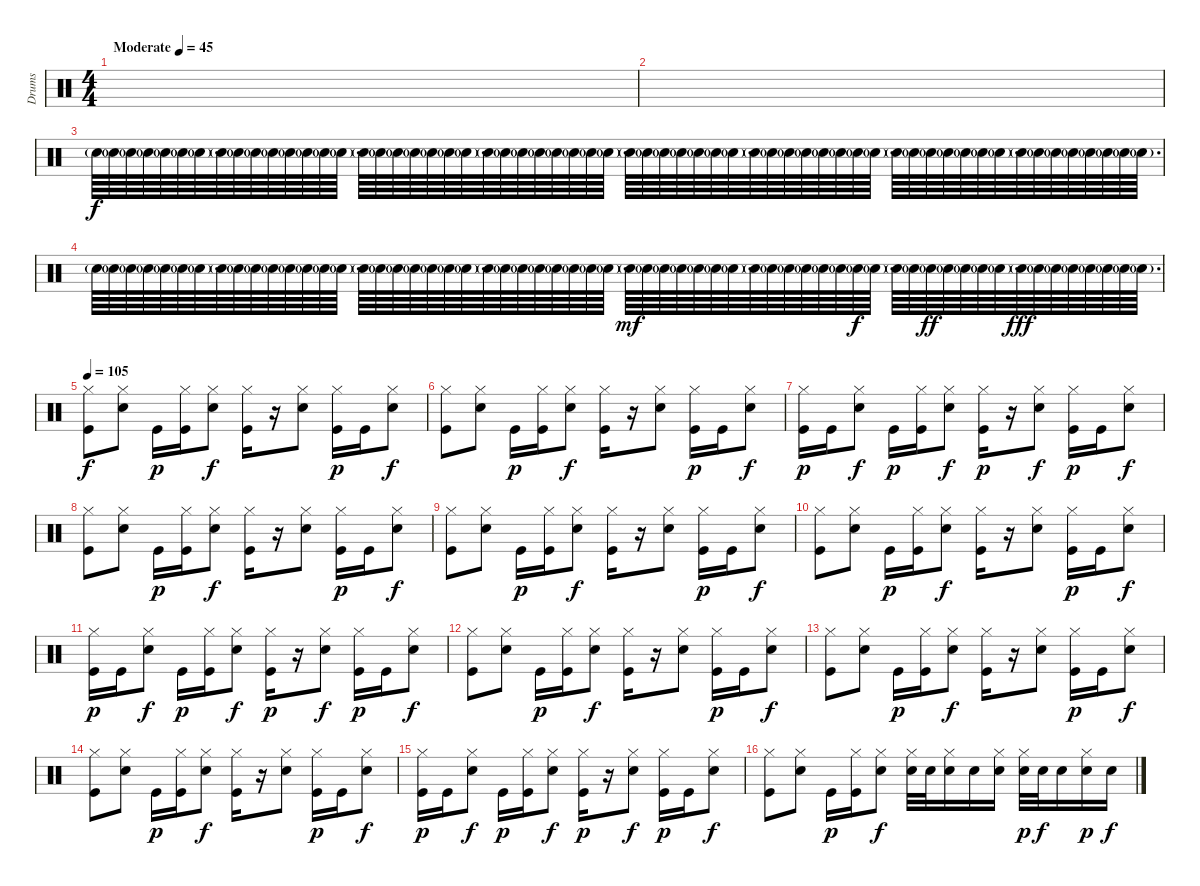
\track ("Drums" "Drums") {instrument percussion}
\staff {score}
\articulation defaults
\ts (4 4)
\tempo (45 "Moderate")
\clef neutral
\ks c
|
|
"Snare (hit) 2"{g}.64{volume 13} "Snare (hit) 2"{g}.64 "Snare (hit) 2"{g}.64 "Snare (hit) 2"{g}.64 "Snare (hit) 2"{g}.64 "Snare (hit) 2"{g}.64 "Snare (hit) 2"{g}.64{d} "Snare (hit) 2"{g}.64 "Snare (hit) 2"{g}.64 "Snare (hit) 2"{g}.64 "Snare (hit) 2"{g}.64 "Snare (hit) 2"{g}.64 "Snare (hit) 2"{g}.64 "Snare (hit) 2"{g}.64 "Snare (hit) 2"{g}.64{d} "Snare (hit) 2"{g}.64 "Snare (hit) 2"{g}.64 "Snare (hit) 2"{g}.64 "Snare (hit) 2"{g}.64 "Snare (hit) 2"{g}.64 "Snare (hit) 2"{g}.64 "Snare (hit) 2"{g}.64{d} "Snare (hit) 2"{g}.64 "Snare (hit) 2"{g}.64 "Snare (hit) 2"{g}.64 "Snare (hit) 2"{g}.64 "Snare (hit) 2"{g}.64 "Snare (hit) 2"{g}.64 "Snare (hit) 2"{g}.64 "Snare (hit) 2"{g}.64{d} "Snare (hit) 2"{g}.64 "Snare (hit) 2"{g}.64 "Snare (hit) 2"{g}.64 "Snare (hit) 2"{g}.64 "Snare (hit) 2"{g}.64 "Snare (hit) 2"{g}.64 "Snare (hit) 2"{g}.64{d} "Snare (hit) 2"{g}.64 "Snare (hit) 2"{g}.64 "Snare (hit) 2"{g}.64 "Snare (hit) 2"{g}.64 "Snare (hit) 2"{g}.64 "Snare (hit) 2"{g}.64 "Snare (hit) 2"{g}.64 "Snare (hit) 2"{g}.64{d} "Snare (hit) 2"{g}.64 "Snare (hit) 2"{g}.64 "Snare (hit) 2"{g}.64 "Snare (hit) 2"{g}.64 "Snare (hit) 2"{g}.64 "Snare (hit) 2"{g}.64 "Snare (hit) 2"{g}.64{d} "Snare (hit) 2"{g}.64 "Snare (hit) 2"{g}.64 "Snare (hit) 2"{g}.64 "Snare (hit) 2"{g}.64 "Snare (hit) 2"{g}.64 "Snare (hit) 2"{g}.64 "Snare (hit) 2"{g}.64 "Snare (hit) 2"{g}.64{d} |
"Snare (hit) 2"{g}.64{volume 16} "Snare (hit) 2"{g}.64 "Snare (hit) 2"{g}.64 "Snare (hit) 2"{g}.64 "Snare (hit) 2"{g}.64 "Snare (hit) 2"{g}.64 "Snare (hit) 2"{g}.64{d} "Snare (hit) 2"{g}.64 "Snare (hit) 2"{g}.64 "Snare (hit) 2"{g}.64 "Snare (hit) 2"{g}.64 "Snare (hit) 2"{g}.64 "Snare (hit) 2"{g}.64 "Snare (hit) 2"{g}.64 "Snare (hit) 2"{g}.64{d} "Snare (hit) 2"{g}.64 "Snare (hit) 2"{g}.64 "Snare (hit) 2"{g}.64 "Snare (hit) 2"{g}.64 "Snare (hit) 2"{g}.64 "Snare (hit) 2"{g}.64 "Snare (hit) 2"{g}.64{d} "Snare (hit) 2"{g}.64 "Snare (hit) 2"{g}.64 "Snare (hit) 2"{g}.64 "Snare (hit) 2"{g}.64 "Snare (hit) 2"{g}.64 "Snare (hit) 2"{g}.64 "Snare (hit) 2"{g}.64 "Snare (hit) 2"{g}.64{d} "Snare (hit) 2"{g}.64{dy mf} "Snare (hit) 2"{g}.64 "Snare (hit) 2"{g}.64 "Snare (hit) 2"{g}.64 "Snare (hit) 2"{g}.64 "Snare (hit) 2"{g}.64 "Snare (hit) 2"{g}.64{d} "Snare (hit) 2"{g}.64 "Snare (hit) 2"{g}.64 "Snare (hit) 2"{g}.64 "Snare (hit) 2"{g}.64 "Snare (hit) 2"{g}.64 "Snare (hit) 2"{g}.64 "Snare (hit) 2"{g}.64{dy f} "Snare (hit) 2"{g}.64{d} "Snare (hit) 2"{g}.64 "Snare (hit) 2"{g}.64 "Snare (hit) 2"{g}.64{dy ff} "Snare (hit) 2"{g}.64 "Snare (hit) 2"{g}.64 "Snare (hit) 2"{g}.64 "Snare (hit) 2"{g}.64{d} "Snare (hit) 2"{g}.64{dy fff} "Snare (hit) 2"{g}.64 "Snare (hit) 2"{g}.64 "Snare (hit) 2"{g}.64 "Snare (hit) 2"{g}.64 "Snare (hit) 2"{g}.64 "Snare (hit) 2"{g}.64 "Snare (hit) 2"{g}.64{d} |
\tempo 105
("Hi-Hat (closed)" "Kick (hit)").8{dy f} ("Hi-Hat (closed)" "Snare (hit) 2").8 "Kick (hit)".16{dy p} ("Hi-Hat (closed)" "Kick (hit)").16 ("Hi-Hat (closed)" "Snare (hit) 2").8{dy f} ("Hi-Hat (closed)" "Kick (hit)").16 r.16 ("Hi-Hat (closed)" "Snare (hit) 2").8 ("Hi-Hat (closed)" "Kick (hit)").16{dy p} "Kick (hit)".16 ("Hi-Hat (closed)" "Snare (hit) 2").8{dy f} |
("Hi-Hat (closed)" "Kick (hit)").8 ("Hi-Hat (closed)" "Snare (hit) 2").8 "Kick (hit)".16{dy p} ("Hi-Hat (closed)" "Kick (hit)").16 ("Hi-Hat (closed)" "Snare (hit) 2").8{dy f} ("Hi-Hat (closed)" "Kick (hit)").16 r.16 ("Hi-Hat (closed)" "Snare (hit) 2").8 ("Hi-Hat (closed)" "Kick (hit)").16{dy p} "Kick (hit)".16 ("Hi-Hat (closed)" "Snare (hit) 2").8{dy f} |
("Hi-Hat (closed)" "Kick (hit)").16{dy p} "Kick (hit)".16 ("Hi-Hat (closed)" "Snare (hit) 2").8{dy f} "Kick (hit)".16{dy p} ("Hi-Hat (closed)" "Kick (hit)").16 ("Hi-Hat (closed)" "Snare (hit) 2").8{dy f} ("Hi-Hat (closed)" "Kick (hit)").16{dy p} r.16 ("Hi-Hat (closed)" "Snare (hit) 2").8{dy f} ("Hi-Hat (closed)" "Kick (hit)").16{dy p} "Kick (hit)".16 ("Hi-Hat (closed)" "Snare (hit) 2").8{dy f} |
("Hi-Hat (closed)" "Kick (hit)").8 ("Hi-Hat (closed)" "Snare (hit) 2").8 "Kick (hit)".16{dy p} ("Hi-Hat (closed)" "Kick (hit)").16 ("Hi-Hat (closed)" "Snare (hit) 2").8{dy f} ("Hi-Hat (closed)" "Kick (hit)").16 r.16 ("Hi-Hat (closed)" "Snare (hit) 2").8 ("Hi-Hat (closed)" "Kick (hit)").16{dy p} "Kick (hit)".16 ("Hi-Hat (closed)" "Snare (hit) 2").8{dy f} |
("Hi-Hat (closed)" "Kick (hit)").8 ("Hi-Hat (closed)" "Snare (hit) 2").8 "Kick (hit)".16{dy p} ("Hi-Hat (closed)" "Kick (hit)").16 ("Hi-Hat (closed)" "Snare (hit) 2").8{dy f} ("Hi-Hat (closed)" "Kick (hit)").16 r.16 ("Hi-Hat (closed)" "Snare (hit) 2").8 ("Hi-Hat (closed)" "Kick (hit)").16{dy p} "Kick (hit)".16 ("Hi-Hat (closed)" "Snare (hit) 2").8{dy f} |
("Hi-Hat (closed)" "Kick (hit)").8 ("Hi-Hat (closed)" "Snare (hit) 2").8 "Kick (hit)".16{dy p} ("Hi-Hat (closed)" "Kick (hit)").16 ("Hi-Hat (closed)" "Snare (hit) 2").8{dy f} ("Hi-Hat (closed)" "Kick (hit)").16 r.16 ("Hi-Hat (closed)" "Snare (hit) 2").8 ("Hi-Hat (closed)" "Kick (hit)").16{dy p} "Kick (hit)".16 ("Hi-Hat (closed)" "Snare (hit) 2").8{dy f} |
("Hi-Hat (closed)" "Kick (hit)").16{dy p} "Kick (hit)".16 ("Hi-Hat (closed)" "Snare (hit) 2").8{dy f} "Kick (hit)".16{dy p} ("Hi-Hat (closed)" "Kick (hit)").16 ("Hi-Hat (closed)" "Snare (hit) 2").8{dy f} ("Hi-Hat (closed)" "Kick (hit)").16{dy p} r.16 ("Hi-Hat (closed)" "Snare (hit) 2").8{dy f} ("Hi-Hat (closed)" "Kick (hit)").16{dy p} "Kick (hit)".16 ("Hi-Hat (closed)" "Snare (hit) 2").8{dy f} |
("Hi-Hat (closed)" "Kick (hit)").8 ("Hi-Hat (closed)" "Snare (hit) 2").8 "Kick (hit)".16{dy p} ("Hi-Hat (closed)" "Kick (hit)").16 ("Hi-Hat (closed)" "Snare (hit) 2").8{dy f} ("Hi-Hat (closed)" "Kick (hit)").16 r.16 ("Hi-Hat (closed)" "Snare (hit) 2").8 ("Hi-Hat (closed)" "Kick (hit)").16{dy p} "Kick (hit)".16 ("Hi-Hat (closed)" "Snare (hit) 2").8{dy f} |
("Hi-Hat (closed)" "Kick (hit)").8 ("Hi-Hat (closed)" "Snare (hit) 2").8 "Kick (hit)".16{dy p} ("Hi-Hat (closed)" "Kick (hit)").16 ("Hi-Hat (closed)" "Snare (hit) 2").8{dy f} ("Hi-Hat (closed)" "Kick (hit)").16 r.16 ("Hi-Hat (closed)" "Snare (hit) 2").8 ("Hi-Hat (closed)" "Kick (hit)").16{dy p} "Kick (hit)".16 ("Hi-Hat (closed)" "Snare (hit) 2").8{dy f} |
("Hi-Hat (closed)" "Kick (hit)").8 ("Hi-Hat (closed)" "Snare (hit) 2").8 "Kick (hit)".16{dy p} ("Hi-Hat (closed)" "Kick (hit)").16 ("Hi-Hat (closed)" "Snare (hit) 2").8{dy f} ("Hi-Hat (closed)" "Kick (hit)").16 r.16 ("Hi-Hat (closed)" "Snare (hit) 2").8 ("Hi-Hat (closed)" "Kick (hit)").16{dy p} "Kick (hit)".16 ("Hi-Hat (closed)" "Snare (hit) 2").8{dy f} |
("Hi-Hat (closed)" "Kick (hit)").16{dy p} "Kick (hit)".16 ("Hi-Hat (closed)" "Snare (hit) 2").8{dy f} "Kick (hit)".16{dy p} ("Hi-Hat (closed)" "Kick (hit)").16 ("Hi-Hat (closed)" "Snare (hit) 2").8{dy f} ("Hi-Hat (closed)" "Kick (hit)").16{dy p} r.16 ("Hi-Hat (closed)" "Snare (hit) 2").8{dy f} ("Hi-Hat (closed)" "Kick (hit)").16{dy p} "Kick (hit)".16 ("Hi-Hat (closed)" "Snare (hit) 2").8{dy f} |
("Hi-Hat (closed)" "Kick (hit)").8 ("Hi-Hat (closed)" "Snare (hit) 2").8 "Kick (hit)".16{dy p} ("Hi-Hat (closed)" "Kick (hit)").16 ("Hi-Hat (closed)" "Snare (hit) 2").8{dy f} ("Hi-Hat (closed)" "Snare (hit) 2").32 "Snare (hit) 2".32 ("Hi-Hat (closed)" "Snare (hit) 2").16 "Snare (hit) 2".16 ("Hi-Hat (closed)" "Snare (hit) 2").16 ("Hi-Hat (closed)" "Snare (hit) 2").32{dy p} "Snare (hit) 2".32{dy f} "Snare (hit) 2".16 ("Hi-Hat (closed)" "Snare (hit) 2").16{dy p} "Snare (hit) 2".16{dy f}
